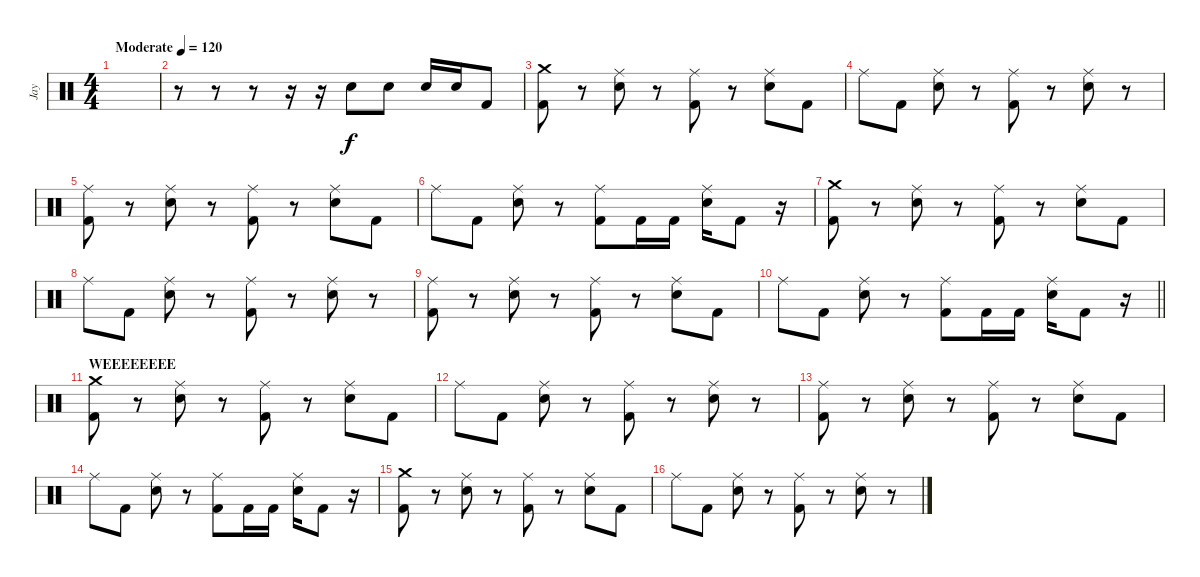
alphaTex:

\track ("Jay" "Jay") {instrument percussion}
\staff {score}
\articulation defaults
\ts (4 4)
\tempo (120 "Moderate")
\clef neutral
\ks c
|
r.8 r.8 r.8 r.16 r.16 "Electric Snare (hit)".8 "Electric Snare (hit)".8 "Electric Snare (hit)".16 "Electric Snare (hit)".16 "Kick (hit) 2".8 |
("Kick (hit) 2" "Crash medium (hit)").8 r.8 ("Electric Snare (hit)" "Ride (middle)").8 r.8 ("Kick (hit) 2" "Ride (middle)").8 r.8 ("Electric Snare (hit)" "Ride (middle)").8 "Kick (hit) 2".8 |
"Ride (middle)".8 "Kick (hit) 2".8 ("Electric Snare (hit)" "Ride (middle)").8 r.8 ("Kick (hit) 2" "Ride (middle)").8 r.8 ("Electric Snare (hit)" "Ride (middle)").8 r.8 |
("Kick (hit) 2" "Ride (middle)").8 r.8 ("Electric Snare (hit)" "Ride (middle)").8 r.8 ("Kick (hit) 2" "Ride (middle)").8 r.8 ("Electric Snare (hit)" "Ride (middle)").8 "Kick (hit) 2".8 |
"Ride (middle)".8 "Kick (hit) 2".8 ("Electric Snare (hit)" "Ride (middle)").8 r.8 ("Kick (hit) 2" "Ride (middle)").8 "Kick (hit) 2".16 "Kick (hit) 2".16 ("Electric Snare (hit)" "Ride (middle)").16 "Kick (hit) 2".8 r.16 |
("Kick (hit) 2" "Crash medium (hit)").8 r.8 ("Electric Snare (hit)" "Ride (middle)").8 r.8 ("Kick (hit) 2" "Ride (middle)").8 r.8 ("Electric Snare (hit)" "Ride (middle)").8 "Kick (hit) 2".8 |
"Ride (middle)".8 "Kick (hit) 2".8 ("Electric Snare (hit)" "Ride (middle)").8 r.8 ("Kick (hit) 2" "Ride (middle)").8 r.8 ("Electric Snare (hit)" "Ride (middle)").8 r.8 |
("Kick (hit) 2" "Ride (middle)").8 r.8 ("Electric Snare (hit)" "Ride (middle)").8 r.8 ("Kick (hit) 2" "Ride (middle)").8 r.8 ("Electric Snare (hit)" "Ride (middle)").8 "Kick (hit) 2".8 |
\barLineRight lightlight "Ride (middle)".8 "Kick (hit) 2".8
("Electric Snare (hit)" "Ride (middle)").8 r.8 ("Kick (hit) 2" "Ride (middle)").8 "Kick (hit) 2".16 "Kick (hit) 2".16 ("Electric Snare (hit)" "Ride (middle)").16 "Kick (hit) 2".8 r.16 |
\section ("" "WEEEEEEEE")
("Kick (hit) 2" "Crash medium (hit)").8 r.8 ("Electric Snare (hit)" "Ride (middle)").8 r.8 ("Kick (hit) 2" "Ride (middle)").8 r.8 ("Electric Snare (hit)" "Ride (middle)").8 "Kick (hit) 2".8 |
"Ride (middle)".8 "Kick (hit) 2".8 ("Electric Snare (hit)" "Ride (middle)").8 r.8 ("Kick (hit) 2" "Ride (middle)").8 r.8 ("Electric Snare (hit)" "Ride (middle)").8 r.8 |
("Kick (hit) 2" "Ride (middle)").8 r.8 ("Electric Snare (hit)" "Ride (middle)").8 r.8 ("Kick (hit) 2" "Ride (middle)").8 r.8 ("Electric Snare (hit)" "Ride (middle)").8 "Kick (hit) 2".8 |
"Ride (middle)".8 "Kick (hit) 2".8 ("Electric Snare (hit)" "Ride (middle)").8 r.8 ("Kick (hit) 2" "Ride (middle)").8 "Kick (hit) 2".16 "Kick (hit) 2".16 ("Electric Snare (hit)" "Ride (middle)").16 "Kick (hit) 2".8 r.16 |
("Kick (hit) 2" "Crash medium (hit)").8 r.8 ("Electric Snare (hit)" "Ride (middle)").8 r.8 ("Kick (hit) 2" "Ride (middle)").8 r.8 ("Electric Snare (hit)" "Ride (middle)").8 "Kick (hit) 2".8 |
"Ride (middle)".8 "Kick (hit) 2".8 ("Electric Snare (hit)" "Ride (middle)").8 r.8 ("Kick (hit) 2" "Ride (middle)").8 r.8 ("Electric Snare (hit)" "Ride (middle)").8 r.8
